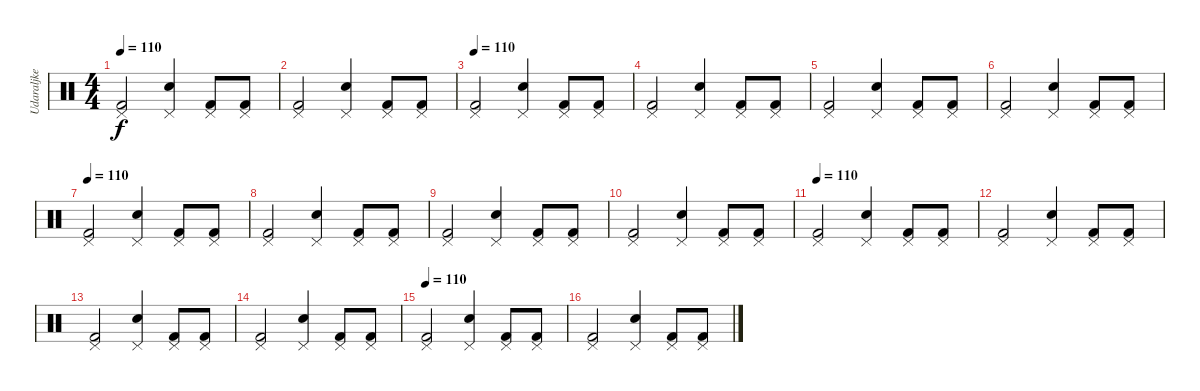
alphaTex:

\track ("Udaraljke" "Udaraljke") {instrument percussion}
\staff {score}
\articulation defaults
\ts (4 4)
\tempo 110
\clef neutral
\ks c
("Kick (hit) 2" "Pedal Hi-Hat (hit)").2{dy f} ("Snare (hit) 2" "Pedal Hi-Hat (hit)").4 ("Kick (hit) 2" "Pedal Hi-Hat (hit)").8 ("Kick (hit) 2" "Pedal Hi-Hat (hit)").8 |
("Kick (hit) 2" "Pedal Hi-Hat (hit)").2 ("Snare (hit) 2" "Pedal Hi-Hat (hit)").4 ("Kick (hit) 2" "Pedal Hi-Hat (hit)").8 ("Kick (hit) 2" "Pedal Hi-Hat (hit)").8 |
\tempo 110
("Kick (hit) 2" "Pedal Hi-Hat (hit)").2 ("Snare (hit) 2" "Pedal Hi-Hat (hit)").4 ("Kick (hit) 2" "Pedal Hi-Hat (hit)").8 ("Kick (hit) 2" "Pedal Hi-Hat (hit)").8 |
("Kick (hit) 2" "Pedal Hi-Hat (hit)").2 ("Snare (hit) 2" "Pedal Hi-Hat (hit)").4 ("Kick (hit) 2" "Pedal Hi-Hat (hit)").8 ("Kick (hit) 2" "Pedal Hi-Hat (hit)").8 |
("Kick (hit) 2" "Pedal Hi-Hat (hit)").2 ("Snare (hit) 2" "Pedal Hi-Hat (hit)").4 ("Kick (hit) 2" "Pedal Hi-Hat (hit)").8 ("Kick (hit) 2" "Pedal Hi-Hat (hit)").8 |
("Kick (hit) 2" "Pedal Hi-Hat (hit)").2 ("Snare (hit) 2" "Pedal Hi-Hat (hit)").4 ("Kick (hit) 2" "Pedal Hi-Hat (hit)").8 ("Kick (hit) 2" "Pedal Hi-Hat (hit)").8 |
\tempo 110
("Kick (hit) 2" "Pedal Hi-Hat (hit)").2 ("Snare (hit) 2" "Pedal Hi-Hat (hit)").4 ("Kick (hit) 2" "Pedal Hi-Hat (hit)").8 ("Kick (hit) 2" "Pedal Hi-Hat (hit)").8 |
("Kick (hit) 2" "Pedal Hi-Hat (hit)").2 ("Snare (hit) 2" "Pedal Hi-Hat (hit)").4 ("Kick (hit) 2" "Pedal Hi-Hat (hit)").8 ("Kick (hit) 2" "Pedal Hi-Hat (hit)").8 |
("Kick (hit) 2" "Pedal Hi-Hat (hit)").2 ("Snare (hit) 2" "Pedal Hi-Hat (hit)").4 ("Kick (hit) 2" "Pedal Hi-Hat (hit)").8 ("Kick (hit) 2" "Pedal Hi-Hat (hit)").8 |
("Kick (hit) 2" "Pedal Hi-Hat (hit)").2 ("Snare (hit) 2" "Pedal Hi-Hat (hit)").4 ("Kick (hit) 2" "Pedal Hi-Hat (hit)").8 ("Kick (hit) 2" "Pedal Hi-Hat (hit)").8 |
\tempo 110
("Kick (hit) 2" "Pedal Hi-Hat (hit)").2 ("Snare (hit) 2" "Pedal Hi-Hat (hit)").4 ("Kick (hit) 2" "Pedal Hi-Hat (hit)").8 ("Kick (hit) 2" "Pedal Hi-Hat (hit)").8 |
("Kick (hit) 2" "Pedal Hi-Hat (hit)").2 ("Snare (hit) 2" "Pedal Hi-Hat (hit)").4 ("Kick (hit) 2" "Pedal Hi-Hat (hit)").8 ("Kick (hit) 2" "Pedal Hi-Hat (hit)").8 |
("Kick (hit) 2" "Pedal Hi-Hat (hit)").2 ("Snare (hit) 2" "Pedal Hi-Hat (hit)").4 ("Kick (hit) 2" "Pedal Hi-Hat (hit)").8 ("Kick (hit) 2" "Pedal Hi-Hat (hit)").8 |
("Kick (hit) 2" "Pedal Hi-Hat (hit)").2 ("Snare (hit) 2" "Pedal Hi-Hat (hit)").4 ("Kick (hit) 2" "Pedal Hi-Hat (hit)").8 ("Kick (hit) 2" "Pedal Hi-Hat (hit)").8 |
\tempo 110
("Kick (hit) 2" "Pedal Hi-Hat (hit)").2 ("Snare (hit) 2" "Pedal Hi-Hat (hit)").4 ("Kick (hit) 2" "Pedal Hi-Hat (hit)").8 ("Kick (hit) 2" "Pedal Hi-Hat (hit)").8 |
("Kick (hit) 2" "Pedal Hi-Hat (hit)").2 ("Snare (hit) 2" "Pedal Hi-Hat (hit)").4 ("Kick (hit) 2" "Pedal Hi-Hat (hit)").8 ("Kick (hit) 2" "Pedal Hi-Hat (hit)").8
